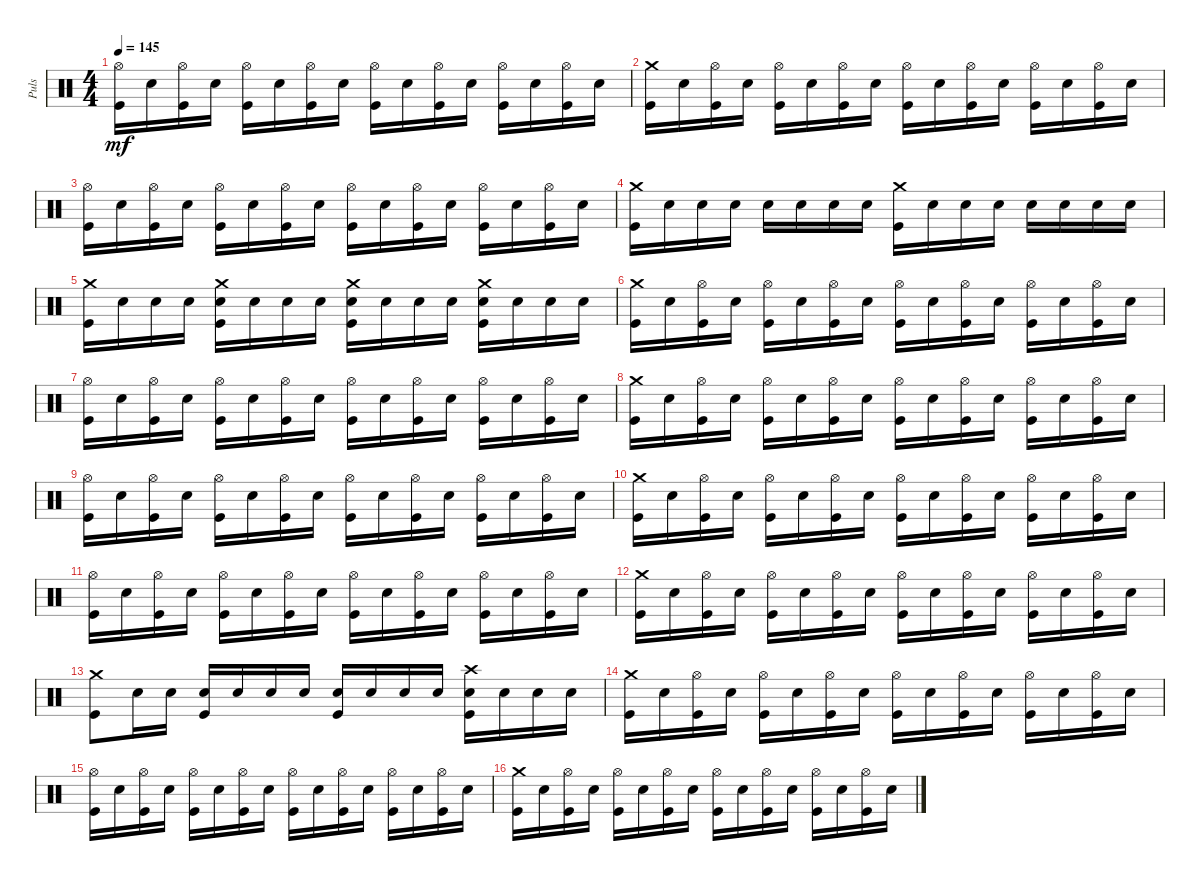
\track ("Puls" "Puls") {instrument percussion}
\staff {score}
\articulation defaults
\ts (4 4)
\tempo 145
\clef neutral
\ks c
("Kick (hit)" "Hi-Hat (open)").16{dy mf} "Snare (hit) 2".16 ("Kick (hit)" "Hi-Hat (open)").16 "Snare (hit) 2".16 ("Kick (hit)" "Hi-Hat (open)").16 "Snare (hit) 2".16 ("Kick (hit)" "Hi-Hat (open)").16 "Snare (hit) 2".16 ("Kick (hit)" "Hi-Hat (open)").16 "Snare (hit) 2".16 ("Kick (hit)" "Hi-Hat (open)").16 "Snare (hit) 2".16 ("Kick (hit)" "Hi-Hat (open)").16 "Snare (hit) 2".16 ("Kick (hit)" "Hi-Hat (open)").16 "Snare (hit) 2".16 |
("Kick (hit)" "Crash medium (hit)").16 "Snare (hit) 2".16 ("Kick (hit)" "Hi-Hat (open)").16 "Snare (hit) 2".16 ("Kick (hit)" "Hi-Hat (open)").16 "Snare (hit) 2".16 ("Kick (hit)" "Hi-Hat (open)").16 "Snare (hit) 2".16 ("Kick (hit)" "Hi-Hat (open)").16 "Snare (hit) 2".16 ("Kick (hit)" "Hi-Hat (open)").16 "Snare (hit) 2".16 ("Kick (hit)" "Hi-Hat (open)").16 "Snare (hit) 2".16 ("Kick (hit)" "Hi-Hat (open)").16 "Snare (hit) 2".16 |
("Kick (hit)" "Hi-Hat (open)").16 "Snare (hit) 2".16 ("Kick (hit)" "Hi-Hat (open)").16 "Snare (hit) 2".16 ("Kick (hit)" "Hi-Hat (open)").16 "Snare (hit) 2".16 ("Kick (hit)" "Hi-Hat (open)").16 "Snare (hit) 2".16 ("Kick (hit)" "Hi-Hat (open)").16 "Snare (hit) 2".16 ("Kick (hit)" "Hi-Hat (open)").16 "Snare (hit) 2".16 ("Kick (hit)" "Hi-Hat (open)").16 "Snare (hit) 2".16 ("Kick (hit)" "Hi-Hat (open)").16 "Snare (hit) 2".16 |
("Crash medium (hit)" "Kick (hit)").16 "Snare (hit) 2".16 "Snare (hit) 2".16 "Snare (hit) 2".16 "Snare (hit) 2".16 "Snare (hit) 2".16 "Snare (hit) 2".16 "Snare (hit) 2".16 ("Kick (hit)" "Crash medium (hit)").16 "Snare (hit) 2".16 "Snare (hit) 2".16 "Snare (hit) 2".16 "Snare (hit) 2".16 "Snare (hit) 2".16 "Snare (hit) 2".16 "Snare (hit) 2".16 |
("Crash medium (hit)" "Kick (hit)").16 "Snare (hit) 2".16 "Snare (hit) 2".16 "Snare (hit) 2".16 ("Snare (hit) 2" "Crash medium (hit)" "Kick (hit)").16 "Snare (hit) 2".16 "Snare (hit) 2".16 "Snare (hit) 2".16 ("Snare (hit) 2" "Kick (hit)" "Crash medium (hit)").16 "Snare (hit) 2".16 "Snare (hit) 2".16 "Snare (hit) 2".16 ("Snare (hit) 2" "Crash medium (hit)" "Kick (hit)").16 "Snare (hit) 2".16 "Snare (hit) 2".16 "Snare (hit) 2".16 |
("Crash medium (hit)" "Kick (hit)").16 "Snare (hit) 2".16 ("Kick (hit)" "Hi-Hat (open)").16 "Snare (hit) 2".16 ("Kick (hit)" "Hi-Hat (open)").16 "Snare (hit) 2".16 ("Kick (hit)" "Hi-Hat (open)").16 "Snare (hit) 2".16 ("Kick (hit)" "Hi-Hat (open)").16 "Snare (hit) 2".16 ("Kick (hit)" "Hi-Hat (open)").16 "Snare (hit) 2".16 ("Kick (hit)" "Hi-Hat (open)").16 "Snare (hit) 2".16 ("Kick (hit)" "Hi-Hat (open)").16 "Snare (hit) 2".16 |
("Kick (hit)" "Hi-Hat (open)").16 "Snare (hit) 2".16 ("Kick (hit)" "Hi-Hat (open)").16 "Snare (hit) 2".16 ("Kick (hit)" "Hi-Hat (open)").16 "Snare (hit) 2".16 ("Kick (hit)" "Hi-Hat (open)").16 "Snare (hit) 2".16 ("Kick (hit)" "Hi-Hat (open)").16 "Snare (hit) 2".16 ("Kick (hit)" "Hi-Hat (open)").16 "Snare (hit) 2".16 ("Kick (hit)" "Hi-Hat (open)").16 "Snare (hit) 2".16 ("Kick (hit)" "Hi-Hat (open)").16 "Snare (hit) 2".16 |
("Crash medium (hit)" "Kick (hit)").16 "Snare (hit) 2".16 ("Kick (hit)" "Hi-Hat (open)").16 "Snare (hit) 2".16 ("Kick (hit)" "Hi-Hat (open)").16 "Snare (hit) 2".16 ("Kick (hit)" "Hi-Hat (open)").16 "Snare (hit) 2".16 ("Kick (hit)" "Hi-Hat (open)").16 "Snare (hit) 2".16 ("Kick (hit)" "Hi-Hat (open)").16 "Snare (hit) 2".16 ("Kick (hit)" "Hi-Hat (open)").16 "Snare (hit) 2".16 ("Kick (hit)" "Hi-Hat (open)").16 "Snare (hit) 2".16 |
("Kick (hit)" "Hi-Hat (open)").16 "Snare (hit) 2".16 ("Kick (hit)" "Hi-Hat (open)").16 "Snare (hit) 2".16 ("Kick (hit)" "Hi-Hat (open)").16 "Snare (hit) 2".16 ("Kick (hit)" "Hi-Hat (open)").16 "Snare (hit) 2".16 ("Kick (hit)" "Hi-Hat (open)").16 "Snare (hit) 2".16 ("Kick (hit)" "Hi-Hat (open)").16 "Snare (hit) 2".16 ("Kick (hit)" "Hi-Hat (open)").16 "Snare (hit) 2".16 ("Kick (hit)" "Hi-Hat (open)").16 "Snare (hit) 2".16 |
("Kick (hit)" "Crash medium (hit)").16 "Snare (hit) 2".16 ("Kick (hit)" "Hi-Hat (open)").16 "Snare (hit) 2".16 ("Kick (hit)" "Hi-Hat (open)").16 "Snare (hit) 2".16 ("Kick (hit)" "Hi-Hat (open)").16 "Snare (hit) 2".16 ("Kick (hit)" "Hi-Hat (open)").16 "Snare (hit) 2".16 ("Kick (hit)" "Hi-Hat (open)").16 "Snare (hit) 2".16 ("Kick (hit)" "Hi-Hat (open)").16 "Snare (hit) 2".16 ("Kick (hit)" "Hi-Hat (open)").16 "Snare (hit) 2".16 |
("Kick (hit)" "Hi-Hat (open)").16 "Snare (hit) 2".16 ("Kick (hit)" "Hi-Hat (open)").16 "Snare (hit) 2".16 ("Kick (hit)" "Hi-Hat (open)").16 "Snare (hit) 2".16 ("Kick (hit)" "Hi-Hat (open)").16 "Snare (hit) 2".16 ("Kick (hit)" "Hi-Hat (open)").16 "Snare (hit) 2".16 ("Kick (hit)" "Hi-Hat (open)").16 "Snare (hit) 2".16 ("Kick (hit)" "Hi-Hat (open)").16 "Snare (hit) 2".16 ("Kick (hit)" "Hi-Hat (open)").16 "Snare (hit) 2".16 |
("Kick (hit)" "Crash medium (hit)").16 "Snare (hit) 2".16 ("Kick (hit)" "Hi-Hat (open)").16 "Snare (hit) 2".16 ("Kick (hit)" "Hi-Hat (open)").16 "Snare (hit) 2".16 ("Kick (hit)" "Hi-Hat (open)").16 "Snare (hit) 2".16 ("Kick (hit)" "Hi-Hat (open)").16 "Snare (hit) 2".16 ("Kick (hit)" "Hi-Hat (open)").16 "Snare (hit) 2".16 ("Kick (hit)" "Hi-Hat (open)").16 "Snare (hit) 2".16 ("Kick (hit)" "Hi-Hat (open)").16 "Snare (hit) 2".16 |
("Crash medium (hit)" "Kick (hit)").8 "Snare (hit) 2".16 "Snare (hit) 2".16 ("Snare (hit) 2" "Kick (hit)").16 "Snare (hit) 2".16 "Snare (hit) 2".16 "Snare (hit) 2".16 ("Snare (hit) 2" "Kick (hit)").16 "Snare (hit) 2".16 "Snare (hit) 2".16 "Snare (hit) 2".16 ("Snare (hit) 2" "Kick (hit)" "Crash high (hit)").16 "Snare (hit) 2".16 "Snare (hit) 2".16 "Snare (hit) 2".16 |
("Crash medium (hit)" "Kick (hit)").16 "Snare (hit) 2".16 ("Kick (hit)" "Hi-Hat (open)").16 "Snare (hit) 2".16 ("Kick (hit)" "Hi-Hat (open)").16 "Snare (hit) 2".16 ("Kick (hit)" "Hi-Hat (open)").16 "Snare (hit) 2".16 ("Kick (hit)" "Hi-Hat (open)").16 "Snare (hit) 2".16 ("Kick (hit)" "Hi-Hat (open)").16 "Snare (hit) 2".16 ("Kick (hit)" "Hi-Hat (open)").16 "Snare (hit) 2".16 ("Kick (hit)" "Hi-Hat (open)").16 "Snare (hit) 2".16 |
("Kick (hit)" "Hi-Hat (open)").16 "Snare (hit) 2".16 ("Kick (hit)" "Hi-Hat (open)").16 "Snare (hit) 2".16 ("Kick (hit)" "Hi-Hat (open)").16 "Snare (hit) 2".16 ("Kick (hit)" "Hi-Hat (open)").16 "Snare (hit) 2".16 ("Kick (hit)" "Hi-Hat (open)").16 "Snare (hit) 2".16 ("Kick (hit)" "Hi-Hat (open)").16 "Snare (hit) 2".16 ("Kick (hit)" "Hi-Hat (open)").16 "Snare (hit) 2".16 ("Kick (hit)" "Hi-Hat (open)").16 "Snare (hit) 2".16 |
("Crash medium (hit)" "Kick (hit)").16 "Snare (hit) 2".16 ("Kick (hit)" "Hi-Hat (open)").16 "Snare (hit) 2".16 ("Kick (hit)" "Hi-Hat (open)").16 "Snare (hit) 2".16 ("Kick (hit)" "Hi-Hat (open)").16 "Snare (hit) 2".16 ("Kick (hit)" "Hi-Hat (open)").16 "Snare (hit) 2".16 ("Kick (hit)" "Hi-Hat (open)").16 "Snare (hit) 2".16 ("Kick (hit)" "Hi-Hat (open)").16 "Snare (hit) 2".16 ("Kick (hit)" "Hi-Hat (open)").16 "Snare (hit) 2".16
